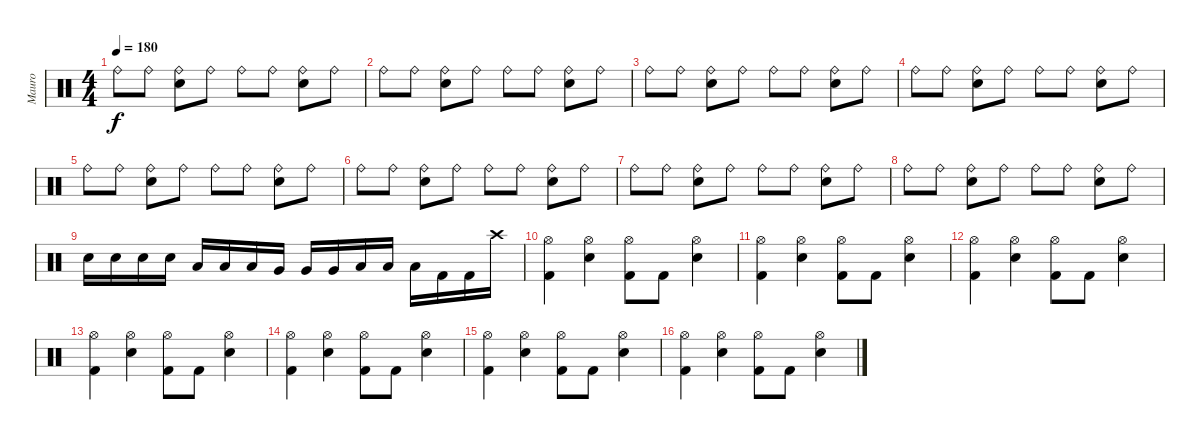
\track ("Mauro" "Mauro") {instrument percussion}
\staff {score}
\articulation defaults
\ts (4 4)
\tempo 180
\clef neutral
\ks c "Ride (bell)".8{dy f} "Ride (bell)".8
("Ride (bell)" "Snare (hit) 2").8 "Ride (bell)".8 "Ride (bell)".8 "Ride (bell)".8 ("Ride (bell)" "Snare (hit) 2").8 "Ride (bell)".8 |
"Ride (bell)".8 "Ride (bell)".8 ("Ride (bell)" "Snare (hit) 2").8 "Ride (bell)".8 "Ride (bell)".8 "Ride (bell)".8 ("Ride (bell)" "Snare (hit) 2").8 "Ride (bell)".8 |
"Ride (bell)".8 "Ride (bell)".8 ("Ride (bell)" "Snare (hit) 2").8 "Ride (bell)".8 "Ride (bell)".8 "Ride (bell)".8 ("Ride (bell)" "Snare (hit) 2").8 "Ride (bell)".8 |
"Ride (bell)".8 "Ride (bell)".8 ("Ride (bell)" "Snare (hit) 2").8 "Ride (bell)".8 "Ride (bell)".8 "Ride (bell)".8 ("Ride (bell)" "Snare (hit) 2").8 "Ride (bell)".8 |
"Ride (bell)".8 "Ride (bell)".8 ("Ride (bell)" "Snare (hit) 2").8 "Ride (bell)".8 "Ride (bell)".8 "Ride (bell)".8 ("Ride (bell)" "Snare (hit) 2").8 "Ride (bell)".8 |
"Ride (bell)".8 "Ride (bell)".8 ("Ride (bell)" "Snare (hit) 2").8 "Ride (bell)".8 "Ride (bell)".8 "Ride (bell)".8 ("Ride (bell)" "Snare (hit) 2").8 "Ride (bell)".8 |
"Ride (bell)".8 "Ride (bell)".8 ("Ride (bell)" "Snare (hit) 2").8 "Ride (bell)".8 "Ride (bell)".8 "Ride (bell)".8 ("Ride (bell)" "Snare (hit) 2").8 "Ride (bell)".8 |
"Ride (bell)".8 "Ride (bell)".8 ("Ride (bell)" "Snare (hit) 2").8 "Ride (bell)".8 "Ride (bell)".8 "Ride (bell)".8 ("Ride (bell)" "Snare (hit) 2").8 "Ride (bell)".8 |
"Snare (hit) 2".16 "Snare (hit) 2".16 "Snare (hit) 2".16 "Snare (hit) 2".16 "Low Tom (hit)".16 "Low Tom (hit)".16 "Low Tom (hit)".16 "Very Low Tom (hit)".16 "Very Low Tom (hit)".16 "Very Low Tom (hit)".16 "Low Floor Tom (hit)".16 "Low Floor Tom (hit)".16 "Low Floor Tom (hit)".16 "Kick (hit) 2".16 "Kick (hit) 2".16 "Crash high (hit)".16 |
("Hi-Hat (open)" "Kick (hit) 2").4 ("Hi-Hat (open)" "Snare (hit) 2").4 ("Hi-Hat (open)" "Kick (hit) 2").8 "Kick (hit) 2".8 ("Hi-Hat (open)" "Snare (hit) 2").4 |
("Hi-Hat (open)" "Kick (hit) 2").4 ("Hi-Hat (open)" "Snare (hit) 2").4 ("Hi-Hat (open)" "Kick (hit) 2").8 "Kick (hit) 2".8 ("Hi-Hat (open)" "Snare (hit) 2").4 |
("Hi-Hat (open)" "Kick (hit) 2").4 ("Hi-Hat (open)" "Snare (hit) 2").4 ("Hi-Hat (open)" "Kick (hit) 2").8 "Kick (hit) 2".8 ("Hi-Hat (open)" "Snare (hit) 2").4 |
("Hi-Hat (open)" "Kick (hit) 2").4 ("Hi-Hat (open)" "Snare (hit) 2").4 ("Hi-Hat (open)" "Kick (hit) 2").8 "Kick (hit) 2".8 ("Hi-Hat (open)" "Snare (hit) 2").4 |
("Hi-Hat (open)" "Kick (hit) 2").4 ("Hi-Hat (open)" "Snare (hit) 2").4 ("Hi-Hat (open)" "Kick (hit) 2").8 "Kick (hit) 2".8 ("Hi-Hat (open)" "Snare (hit) 2").4 |
("Hi-Hat (open)" "Kick (hit) 2").4 ("Hi-Hat (open)" "Snare (hit) 2").4 ("Hi-Hat (open)" "Kick (hit) 2").8 "Kick (hit) 2".8 ("Hi-Hat (open)" "Snare (hit) 2").4 |
("Hi-Hat (open)" "Kick (hit) 2").4 ("Hi-Hat (open)" "Snare (hit) 2").4 ("Hi-Hat (open)" "Kick (hit) 2").8 "Kick (hit) 2".8 ("Hi-Hat (open)" "Snare (hit) 2").4
